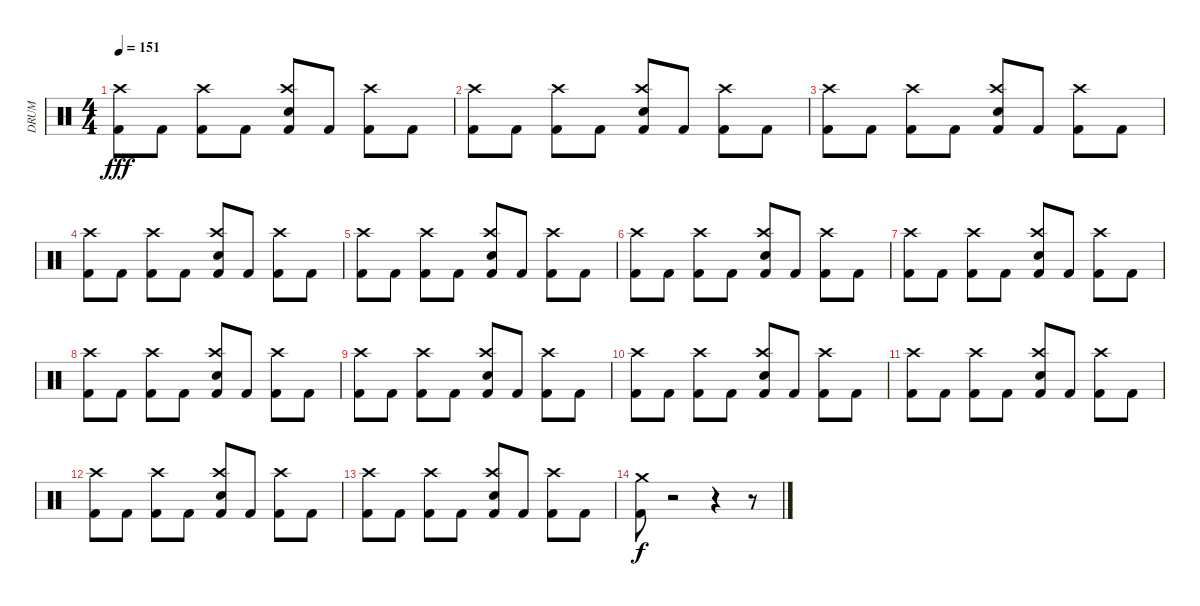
\track ("DRUM" "DRUM") {instrument percussion}
\staff {score}
\articulation defaults
\ts (4 4)
\tempo 151
\clef neutral
\ks c
("Kick (hit) 2" "Crash high (hit)").8{dy fff} "Kick (hit) 2".8 ("Kick (hit) 2" "Crash high (hit)").8 "Kick (hit) 2".8 ("Snare (hit) 2" "Kick (hit) 2" "Crash high (hit)").8 "Kick (hit) 2".8 ("Kick (hit) 2" "Crash high (hit)").8 "Kick (hit) 2".8 |
("Kick (hit) 2" "Crash high (hit)").8 "Kick (hit) 2".8 ("Kick (hit) 2" "Crash high (hit)").8 "Kick (hit) 2".8 ("Kick (hit) 2" "Crash high (hit)" "Snare (hit) 2").8 "Kick (hit) 2".8 ("Kick (hit) 2" "Crash high (hit)").8 "Kick (hit) 2".8 |
("Kick (hit) 2" "Crash high (hit)").8 "Kick (hit) 2".8 ("Kick (hit) 2" "Crash high (hit)").8 "Kick (hit) 2".8 ("Snare (hit) 2" "Kick (hit) 2" "Crash high (hit)").8 "Kick (hit) 2".8 ("Kick (hit) 2" "Crash high (hit)").8 "Kick (hit) 2".8 |
("Kick (hit) 2" "Crash high (hit)").8 "Kick (hit) 2".8 ("Kick (hit) 2" "Crash high (hit)").8 "Kick (hit) 2".8 ("Kick (hit) 2" "Crash high (hit)" "Snare (hit) 2").8 "Kick (hit) 2".8 ("Kick (hit) 2" "Crash high (hit)").8 "Kick (hit) 2".8 |
("Kick (hit) 2" "Crash high (hit)").8 "Kick (hit) 2".8 ("Kick (hit) 2" "Crash high (hit)").8 "Kick (hit) 2".8 ("Snare (hit) 2" "Kick (hit) 2" "Crash high (hit)").8 "Kick (hit) 2".8 ("Kick (hit) 2" "Crash high (hit)").8 "Kick (hit) 2".8 |
("Kick (hit) 2" "Crash high (hit)").8 "Kick (hit) 2".8 ("Kick (hit) 2" "Crash high (hit)").8 "Kick (hit) 2".8 ("Kick (hit) 2" "Crash high (hit)" "Snare (hit) 2").8 "Kick (hit) 2".8 ("Kick (hit) 2" "Crash high (hit)").8 "Kick (hit) 2".8 |
("Kick (hit) 2" "Crash high (hit)").8 "Kick (hit) 2".8 ("Kick (hit) 2" "Crash high (hit)").8 "Kick (hit) 2".8 ("Snare (hit) 2" "Kick (hit) 2" "Crash high (hit)").8 "Kick (hit) 2".8 ("Kick (hit) 2" "Crash high (hit)").8 "Kick (hit) 2".8 |
("Kick (hit) 2" "Crash high (hit)").8 "Kick (hit) 2".8 ("Kick (hit) 2" "Crash high (hit)").8 "Kick (hit) 2".8 ("Kick (hit) 2" "Crash high (hit)" "Snare (hit) 2").8 "Kick (hit) 2".8 ("Kick (hit) 2" "Crash high (hit)").8 "Kick (hit) 2".8 |
("Kick (hit) 2" "Crash high (hit)").8 "Kick (hit) 2".8 ("Kick (hit) 2" "Crash high (hit)").8 "Kick (hit) 2".8 ("Snare (hit) 2" "Kick (hit) 2" "Crash high (hit)").8 "Kick (hit) 2".8 ("Kick (hit) 2" "Crash high (hit)").8 "Kick (hit) 2".8 |
("Kick (hit) 2" "Crash high (hit)").8 "Kick (hit) 2".8 ("Kick (hit) 2" "Crash high (hit)").8 "Kick (hit) 2".8 ("Kick (hit) 2" "Crash high (hit)" "Snare (hit) 2").8 "Kick (hit) 2".8 ("Kick (hit) 2" "Crash high (hit)").8 "Kick (hit) 2".8 |
("Kick (hit) 2" "Crash high (hit)").8 "Kick (hit) 2".8 ("Kick (hit) 2" "Crash high (hit)").8 "Kick (hit) 2".8 ("Snare (hit) 2" "Kick (hit) 2" "Crash high (hit)").8 "Kick (hit) 2".8 ("Kick (hit) 2" "Crash high (hit)").8 "Kick (hit) 2".8 |
("Kick (hit) 2" "Crash high (hit)").8 "Kick (hit) 2".8 ("Kick (hit) 2" "Crash high (hit)").8 "Kick (hit) 2".8 ("Kick (hit) 2" "Crash high (hit)" "Snare (hit) 2").8 "Kick (hit) 2".8 ("Kick (hit) 2" "Crash high (hit)").8 "Kick (hit) 2".8 |
("Kick (hit) 2" "Crash high (hit)").8 "Kick (hit) 2".8 ("Kick (hit) 2" "Crash high (hit)").8 "Kick (hit) 2".8 ("Snare (hit) 2" "Kick (hit) 2" "Crash high (hit)").8 "Kick (hit) 2".8 ("Kick (hit) 2" "Crash high (hit)").8 "Kick (hit) 2".8 |
("Crash medium (hit)" "Kick (hit) 2").8{dy f} r.2 r.4 r.8
